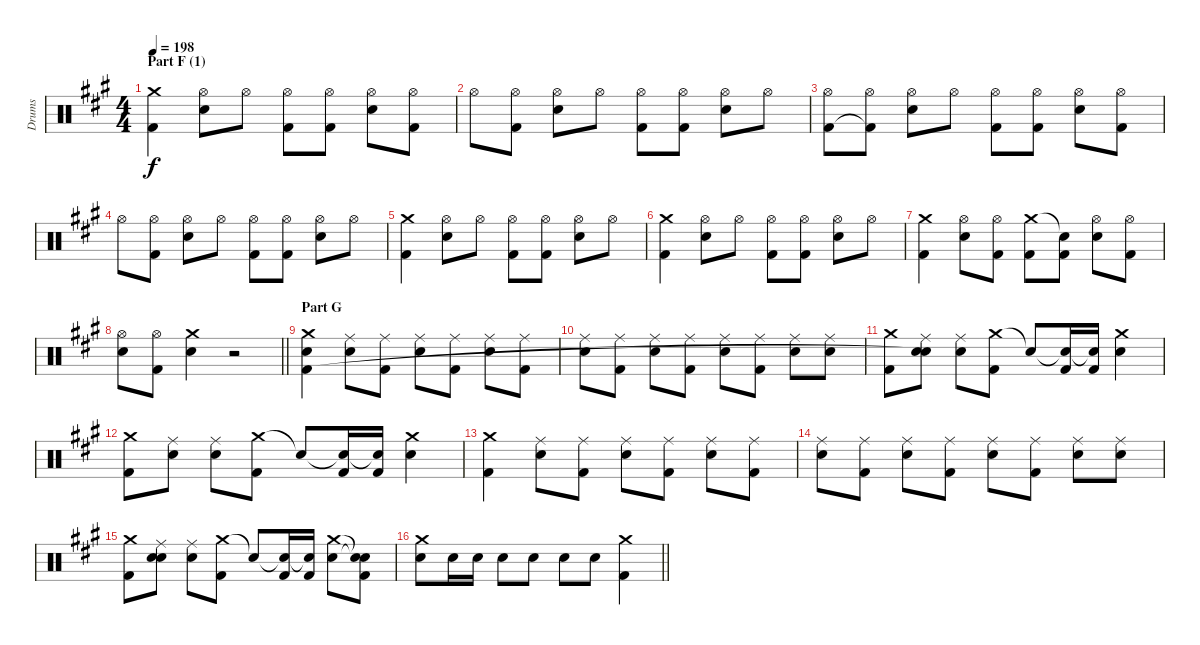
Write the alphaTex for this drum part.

\track ("Drums" "Drums") {instrument percussion}
\staff {score}
\articulation defaults
\ts (4 4)
\section ("" "Part F (1)")
\tempo 198
\clef neutral
\ks a
("Crash medium (hit)" "Kick (hit) 2").4{dy f} ("Hi-Hat (open)" "Electric Snare (hit)").8 "Hi-Hat (open)".8 ("Hi-Hat (open)" "Kick (hit) 2").8 ("Hi-Hat (open)" "Kick (hit) 2").8 ("Hi-Hat (open)" "Electric Snare (hit)").8 ("Hi-Hat (open)" "Kick (hit) 2").8 |
"Hi-Hat (open)".8 ("Hi-Hat (open)" "Kick (hit) 2").8 ("Hi-Hat (open)" "Electric Snare (hit)").8 "Hi-Hat (open)".8 ("Hi-Hat (open)" "Kick (hit) 2").8 ("Hi-Hat (open)" "Kick (hit) 2").8 ("Hi-Hat (open)" "Electric Snare (hit)").8 "Hi-Hat (open)".8 |
("Hi-Hat (open)" "Kick (hit) 2").8 ("Hi-Hat (open)" "Kick (hit) 2"{t}).8 ("Hi-Hat (open)" "Electric Snare (hit)").8 "Hi-Hat (open)".8 ("Hi-Hat (open)" "Kick (hit) 2").8 ("Hi-Hat (open)" "Kick (hit) 2").8 ("Hi-Hat (open)" "Electric Snare (hit)").8 ("Hi-Hat (open)" "Kick (hit) 2").8 |
"Hi-Hat (open)".8 ("Hi-Hat (open)" "Kick (hit) 2").8 ("Hi-Hat (open)" "Electric Snare (hit)").8 "Hi-Hat (open)".8 ("Hi-Hat (open)" "Kick (hit) 2").8 ("Hi-Hat (open)" "Kick (hit) 2").8 ("Hi-Hat (open)" "Electric Snare (hit)").8 "Hi-Hat (open)".8 |
("Crash medium (hit)" "Kick (hit) 2").4 ("Hi-Hat (open)" "Electric Snare (hit)").8 "Hi-Hat (open)".8 ("Hi-Hat (open)" "Kick (hit) 2").8 ("Hi-Hat (open)" "Kick (hit) 2").8 ("Hi-Hat (open)" "Electric Snare (hit)").8 "Hi-Hat (open)".8 |
("Crash medium (hit)" "Kick (hit) 2").4 ("Hi-Hat (open)" "Electric Snare (hit)").8 "Hi-Hat (open)".8 ("Hi-Hat (open)" "Kick (hit) 2").8 ("Hi-Hat (open)" "Kick (hit) 2").8 ("Hi-Hat (open)" "Electric Snare (hit)").8 "Hi-Hat (open)".8 |
("Crash medium (hit)" "Kick (hit) 2").4 ("Hi-Hat (open)" "Electric Snare (hit)").8 ("Hi-Hat (open)" "Kick (hit) 2").8 ("Crash medium (hit)" "Kick (hit) 2").8 ("Snare (hit)"{t} "Kick (hit) 2").8 ("Hi-Hat (open)" "Electric Snare (hit)").8 ("Hi-Hat (open)" "Kick (hit) 2").8 |
\barLineRight lightlight
("Hi-Hat (open)" "Electric Snare (hit)").8 ("Hi-Hat (open)" "Kick (hit) 2").8 ("Crash medium (hit)" "Electric Snare (hit)").4 r.2 |
\section ("" "Part G")
("Crash medium (hit)" "Electric Snare (hit)" "Kick (hit) 2").4 ("Ride (middle)" "Electric Snare (hit)").8 ("Ride (middle)" "Kick (hit) 2").8 ("Ride (middle)" "Electric Snare (hit)").8 ("Ride (middle)" "Kick (hit) 2").8 ("Ride (middle)" "Electric Snare (hit)").8 ("Ride (middle)" "Kick (hit) 2").8 |
("Ride (middle)" "Electric Snare (hit)").8 ("Ride (middle)" "Kick (hit) 2").8 ("Ride (middle)" "Electric Snare (hit)").8 ("Ride (middle)" "Kick (hit) 2").8 ("Ride (middle)" "Electric Snare (hit)").8 ("Ride (middle)" "Kick (hit) 2").8 ("Ride (middle)" "Electric Snare (hit)").8 ("Ride (middle)" "Electric Snare (hit)").8 |
("Crash medium (hit)" "Kick (hit) 2").8 ("Ride (middle)" "Electric Snare (hit)" "Snare (hit)"{t}).8 ("Ride (middle)" "Electric Snare (hit)").8 ("Crash medium (hit)" "Kick (hit) 2").8 "Snare (hit)"{t}.8 ("Snare (hit)"{t} "Kick (hit) 2").16 ("Snare (hit)"{t} "Kick (hit) 2").16 ("Crash medium (hit)" "Electric Snare (hit)").4 |
("Crash medium (hit)" "Kick (hit) 2").8 ("Ride (middle)" "Electric Snare (hit)").8 ("Ride (middle)" "Electric Snare (hit)").8 ("Crash medium (hit)" "Kick (hit) 2").8 "Snare (hit)"{t}.8 ("Snare (hit)"{t} "Kick (hit) 2").16 ("Snare (hit)"{t} "Kick (hit) 2").16 ("Crash medium (hit)" "Electric Snare (hit)").4 |
("Crash medium (hit)" "Kick (hit) 2").4 ("Ride (middle)" "Electric Snare (hit)").8 ("Ride (middle)" "Kick (hit) 2").8 ("Ride (middle)" "Electric Snare (hit)").8 ("Ride (middle)" "Kick (hit) 2").8 ("Ride (middle)" "Electric Snare (hit)").8 ("Ride (middle)" "Kick (hit) 2").8 |
("Ride (middle)" "Electric Snare (hit)").8 ("Ride (middle)" "Kick (hit) 2").8 ("Ride (middle)" "Electric Snare (hit)").8 ("Ride (middle)" "Kick (hit) 2").8 ("Ride (middle)" "Electric Snare (hit)").8 ("Ride (middle)" "Kick (hit) 2").8 ("Ride (middle)" "Electric Snare (hit)").8 ("Ride (middle)" "Electric Snare (hit)").8 |
("Crash medium (hit)" "Kick (hit) 2").8 ("Ride (middle)" "Electric Snare (hit)" "Snare (hit)").8 ("Ride (middle)" "Electric Snare (hit)").8 ("Crash medium (hit)" "Kick (hit) 2").8 "Snare (hit)"{t}.8 ("Snare (hit)"{t} "Kick (hit) 2").16 ("Snare (hit)"{t} "Kick (hit) 2").16 ("Crash medium (hit)" "Electric Snare (hit)").8 ("Snare (hit)"{t} "Snare (hit)"{t} "Kick (hit) 2").8 |
\barLineRight lightlight
("Crash medium (hit)" "Electric Snare (hit)").8 "Electric Snare (hit)".16 "Electric Snare (hit)".16 "Electric Snare (hit)".8 "Electric Snare (hit)".8 "Electric Snare (hit)".8 "Electric Snare (hit)".8 ("Crash medium (hit)" "Kick (hit) 2").4
